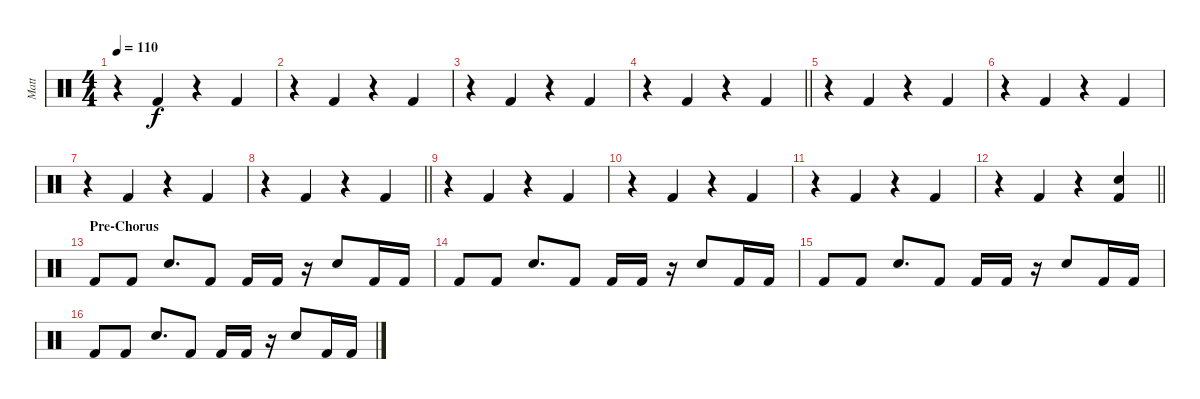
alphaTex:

\track ("Matt" "Matt") {instrument percussion}
\staff {score}
\articulation defaults
\ts (4 4)
\tempo 110
\clef neutral
\ks c
r.4{dy f} "Kick (hit) 2".4 r.4 "Kick (hit) 2".4 |
r.4 "Kick (hit) 2".4 r.4 "Kick (hit) 2".4 |
r.4 "Kick (hit) 2".4 r.4 "Kick (hit) 2".4 |
\barLineRight lightlight
r.4 "Kick (hit) 2".4 r.4 "Kick (hit) 2".4 |
r.4 "Kick (hit) 2".4 r.4 "Kick (hit) 2".4 |
r.4 "Kick (hit) 2".4 r.4 "Kick (hit) 2".4 |
r.4 "Kick (hit) 2".4 r.4 "Kick (hit) 2".4 |
\barLineRight lightlight
r.4 "Kick (hit) 2".4 r.4 "Kick (hit) 2".4 |
r.4 "Kick (hit) 2".4 r.4 "Kick (hit) 2".4 |
r.4 "Kick (hit) 2".4 r.4 "Kick (hit) 2".4 |
r.4 "Kick (hit) 2".4 r.4 "Kick (hit) 2".4 |
\barLineRight lightlight
r.4 "Kick (hit) 2".4 r.4 ("Snare (hit) 2" "Kick (hit) 2").4 |
\section ("" "Pre-Chorus")
"Kick (hit) 2".8 "Kick (hit) 2".8 "Snare (hit) 2".8{d} "Kick (hit) 2".8 "Kick (hit) 2".16 "Kick (hit) 2".16 r.16 "Snare (hit) 2".8 "Kick (hit) 2".16 "Kick (hit) 2".16 |
"Kick (hit) 2".8 "Kick (hit) 2".8 "Snare (hit) 2".8{d} "Kick (hit) 2".8 "Kick (hit) 2".16 "Kick (hit) 2".16 r.16 "Snare (hit) 2".8 "Kick (hit) 2".16 "Kick (hit) 2".16 |
"Kick (hit) 2".8 "Kick (hit) 2".8 "Snare (hit) 2".8{d} "Kick (hit) 2".8 "Kick (hit) 2".16 "Kick (hit) 2".16 r.16 "Snare (hit) 2".8 "Kick (hit) 2".16 "Kick (hit) 2".16 |
"Kick (hit) 2".8 "Kick (hit) 2".8 "Snare (hit) 2".8{d} "Kick (hit) 2".8 "Kick (hit) 2".16 "Kick (hit) 2".16 r.16 "Snare (hit) 2".8 "Kick (hit) 2".16 "Kick (hit) 2".16
